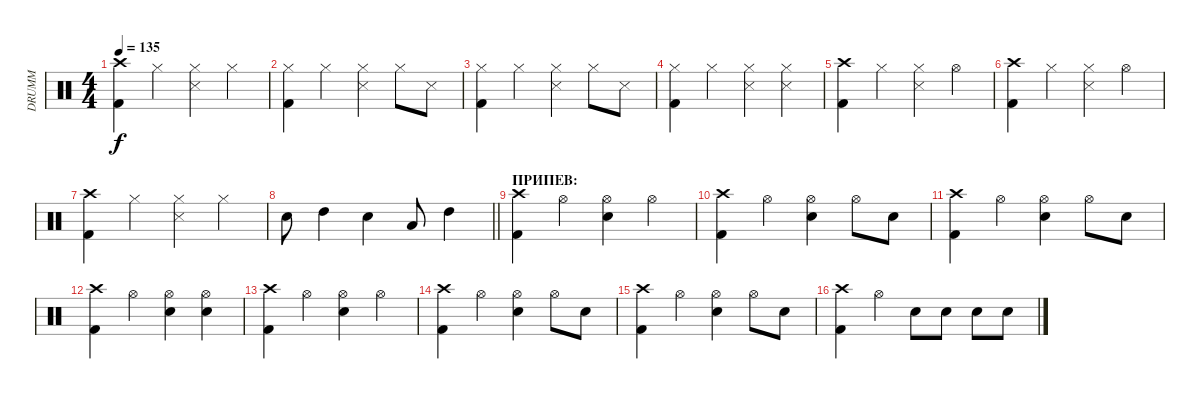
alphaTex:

\track ("DRUMM" "DRUMM") {instrument percussion}
\staff {score}
\articulation defaults
\ts (4 4)
\tempo 135
\clef neutral
\ks c
("Crash high (hit)" "Kick (hit) 2").4{dy f} "Hi-Hat (closed)".4 ("Hi-Hat (closed)" "Snare (side stick) 3").4 "Hi-Hat (closed)".4 |
("Hi-Hat (closed)" "Kick (hit) 2").4 "Hi-Hat (closed)".4 ("Hi-Hat (closed)" "Snare (side stick) 3").4 "Hi-Hat (closed)".8 "Snare (side stick) 3".8 |
("Hi-Hat (closed)" "Kick (hit) 2").4 "Hi-Hat (closed)".4 ("Hi-Hat (closed)" "Snare (side stick) 3").4 "Hi-Hat (closed)".8 "Snare (side stick) 3".8 |
("Hi-Hat (closed)" "Kick (hit) 2").4 "Hi-Hat (closed)".4 ("Hi-Hat (closed)" "Snare (side stick) 3").4 ("Hi-Hat (closed)" "Snare (side stick) 3").4 |
("Crash high (hit)" "Kick (hit) 2").4 "Hi-Hat (closed)".4 ("Hi-Hat (closed)" "Snare (side stick) 3").4 "Hi-Hat (open)".4 |
("Crash high (hit)" "Kick (hit) 2").4 "Hi-Hat (closed)".4 ("Hi-Hat (closed)" "Snare (side stick) 3").4 "Hi-Hat (open)".4 |
("Crash high (hit)" "Kick (hit) 2").4 "Hi-Hat (closed)".4 ("Hi-Hat (closed)" "Snare (side stick) 3").4 "Hi-Hat (closed)".4 |
\barLineRight lightlight "Electric Snare (hit)".8 "High Tom (hit)".4 "Electric Snare (hit)".4 "Low Tom (hit)".8 "High Tom (hit)".4
|
\section ("" "ПРИПЕВ:")
("Crash high (hit)" "Kick (hit) 2").4 "Hi-Hat (open)".4 ("Hi-Hat (open)" "Electric Snare (hit)").4 "Hi-Hat (open)".4 |
("Crash high (hit)" "Kick (hit) 2").4 "Hi-Hat (open)".4 ("Hi-Hat (open)" "Electric Snare (hit)").4 "Hi-Hat (open)".8 "Electric Snare (hit)".8 |
("Crash high (hit)" "Kick (hit) 2").4 "Hi-Hat (open)".4 ("Hi-Hat (open)" "Electric Snare (hit)").4 "Hi-Hat (open)".8 "Electric Snare (hit)".8 |
("Crash high (hit)" "Kick (hit) 2").4 "Hi-Hat (open)".4 ("Hi-Hat (open)" "Electric Snare (hit)").4 ("Electric Snare (hit)" "Hi-Hat (open)").4 |
("Crash high (hit)" "Kick (hit) 2").4 "Hi-Hat (open)".4 ("Hi-Hat (open)" "Electric Snare (hit)").4 "Hi-Hat (open)".4 |
("Crash high (hit)" "Kick (hit) 2").4 "Hi-Hat (open)".4 ("Hi-Hat (open)" "Electric Snare (hit)").4 "Hi-Hat (open)".8 "Electric Snare (hit)".8 |
("Crash high (hit)" "Kick (hit) 2").4 "Hi-Hat (open)".4 ("Hi-Hat (open)" "Electric Snare (hit)").4 "Hi-Hat (open)".8 "Electric Snare (hit)".8 |
("Crash high (hit)" "Kick (hit) 2").4 "Hi-Hat (open)".4 "Electric Snare (hit)".8 "Electric Snare (hit)".8 "Electric Snare (hit)".8 "Electric Snare (hit)".8
